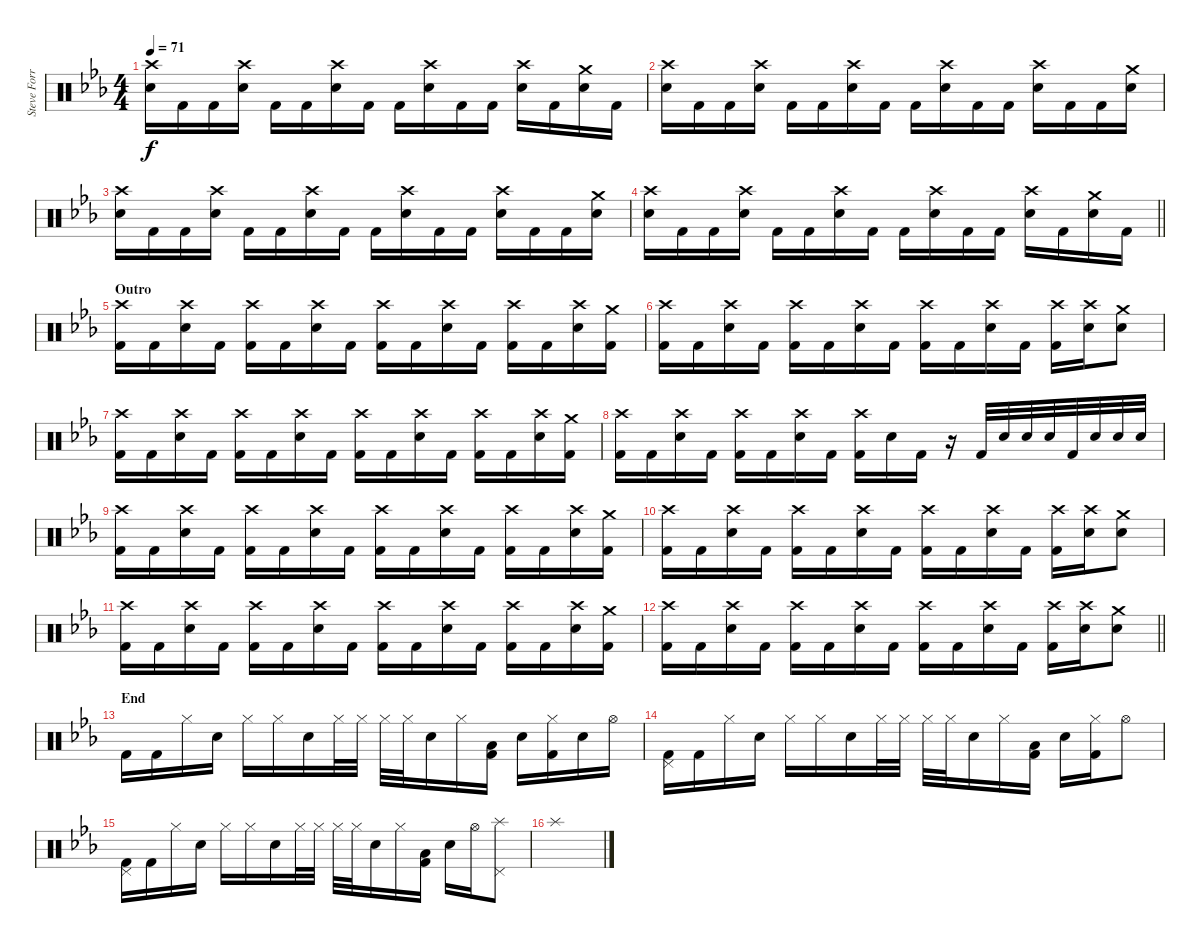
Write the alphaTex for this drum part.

\track ("Steve Forrest [Drums]" "Steve Forr") {instrument percussion}
\staff {score}
\articulation defaults
\ts (4 4)
\tempo 71
\clef neutral
\ks cminor
("Crash high (hit)" "Electric Snare (hit)").16{dy f} "Kick (hit) 2".16 "Kick (hit) 2".16 ("Crash high (hit)" "Electric Snare (hit)").16 "Kick (hit) 2".16 "Kick (hit) 2".16 ("Crash high (hit)" "Electric Snare (hit)").16 "Kick (hit) 2".16 "Kick (hit) 2".16 ("Crash high (hit)" "Electric Snare (hit)").16 "Kick (hit) 2".16 "Kick (hit) 2".16 ("Crash high (hit)" "Electric Snare (hit)").16 "Kick (hit) 2".16 ("Crash medium (hit)" "Electric Snare (hit)").16 "Kick (hit) 2".16 |
("Crash high (hit)" "Electric Snare (hit)").16 "Kick (hit) 2".16 "Kick (hit) 2".16 ("Crash high (hit)" "Electric Snare (hit)").16 "Kick (hit) 2".16 "Kick (hit) 2".16 ("Crash high (hit)" "Electric Snare (hit)").16 "Kick (hit) 2".16 "Kick (hit) 2".16 ("Crash high (hit)" "Electric Snare (hit)").16 "Kick (hit) 2".16 "Kick (hit) 2".16 ("Crash high (hit)" "Electric Snare (hit)").16 "Kick (hit) 2".16 "Kick (hit) 2".16 ("Crash medium (hit)" "Electric Snare (hit)").16 |
("Crash high (hit)" "Electric Snare (hit)").16 "Kick (hit) 2".16 "Kick (hit) 2".16 ("Crash high (hit)" "Electric Snare (hit)").16 "Kick (hit) 2".16 "Kick (hit) 2".16 ("Crash high (hit)" "Electric Snare (hit)").16 "Kick (hit) 2".16 "Kick (hit) 2".16 ("Crash high (hit)" "Electric Snare (hit)").16 "Kick (hit) 2".16 "Kick (hit) 2".16 ("Crash high (hit)" "Electric Snare (hit)").16 "Kick (hit) 2".16 "Kick (hit) 2".16 ("Crash medium (hit)" "Electric Snare (hit)").16 |
\barLineRight lightlight
("Crash high (hit)" "Electric Snare (hit)").16 "Kick (hit) 2".16 "Kick (hit) 2".16 ("Crash high (hit)" "Electric Snare (hit)").16 "Kick (hit) 2".16 "Kick (hit) 2".16 ("Crash high (hit)" "Electric Snare (hit)").16 "Kick (hit) 2".16 "Kick (hit) 2".16 ("Crash high (hit)" "Electric Snare (hit)").16 "Kick (hit) 2".16 "Kick (hit) 2".16 ("Crash high (hit)" "Electric Snare (hit)").16 "Kick (hit) 2".16 ("Crash medium (hit)" "Electric Snare (hit)").16 "Kick (hit) 2".16 |
\section ("" "Outro")
("Crash high (hit)" "Kick (hit) 2").16 "Kick (hit) 2".16 ("Crash high (hit)" "Electric Snare (hit)").16 "Kick (hit) 2".16 ("Crash high (hit)" "Kick (hit) 2").16 "Kick (hit) 2".16 ("Crash high (hit)" "Electric Snare (hit)").16 "Kick (hit) 2".16 ("Crash high (hit)" "Kick (hit) 2").16 "Kick (hit) 2".16 ("Crash high (hit)" "Electric Snare (hit)").16 "Kick (hit) 2".16 ("Crash high (hit)" "Kick (hit) 2").16 "Kick (hit) 2".16 ("Crash high (hit)" "Electric Snare (hit)").16 ("Crash medium (hit)" "Kick (hit) 2").16 |
("Crash high (hit)" "Kick (hit) 2").16 "Kick (hit) 2".16 ("Crash high (hit)" "Electric Snare (hit)").16 "Kick (hit) 2".16 ("Crash high (hit)" "Kick (hit) 2").16 "Kick (hit) 2".16 ("Crash high (hit)" "Electric Snare (hit)").16 "Kick (hit) 2".16 ("Crash high (hit)" "Kick (hit) 2").16 "Kick (hit) 2".16 ("Crash high (hit)" "Electric Snare (hit)").16 "Kick (hit) 2".16 ("Crash high (hit)" "Kick (hit) 2").16 ("Crash high (hit)" "Electric Snare (hit)").16 ("Crash medium (hit)" "Electric Snare (hit)").8 |
("Crash high (hit)" "Kick (hit) 2").16 "Kick (hit) 2".16 ("Crash high (hit)" "Electric Snare (hit)").16 "Kick (hit) 2".16 ("Crash high (hit)" "Kick (hit) 2").16 "Kick (hit) 2".16 ("Crash high (hit)" "Electric Snare (hit)").16 "Kick (hit) 2".16 ("Crash high (hit)" "Kick (hit) 2").16 "Kick (hit) 2".16 ("Crash high (hit)" "Electric Snare (hit)").16 "Kick (hit) 2".16 ("Crash high (hit)" "Kick (hit) 2").16 "Kick (hit) 2".16 ("Crash high (hit)" "Electric Snare (hit)").16 ("Crash medium (hit)" "Kick (hit) 2").16 |
("Crash high (hit)" "Kick (hit) 2").16 "Kick (hit) 2".16 ("Crash high (hit)" "Electric Snare (hit)").16 "Kick (hit) 2".16 ("Crash high (hit)" "Kick (hit) 2").16 "Kick (hit) 2".16 ("Crash high (hit)" "Electric Snare (hit)").16 "Kick (hit) 2".16 ("Crash high (hit)" "Kick (hit) 2").16 "Electric Snare (hit)".16 "Kick (hit) 2".16 r.16 "Kick (hit) 2".32 "Electric Snare (hit)".32 "Electric Snare (hit)".32 "Electric Snare (hit)".32 "Kick (hit) 2".32 "Electric Snare (hit)".32 "Electric Snare (hit)".32 "Electric Snare (hit)".32 |
("Crash high (hit)" "Kick (hit) 2").16 "Kick (hit) 2".16 ("Crash high (hit)" "Electric Snare (hit)").16 "Kick (hit) 2".16 ("Crash high (hit)" "Kick (hit) 2").16 "Kick (hit) 2".16 ("Crash high (hit)" "Electric Snare (hit)").16 "Kick (hit) 2".16 ("Crash high (hit)" "Kick (hit) 2").16 "Kick (hit) 2".16 ("Crash high (hit)" "Electric Snare (hit)").16 "Kick (hit) 2".16 ("Crash high (hit)" "Kick (hit) 2").16 "Kick (hit) 2".16 ("Crash high (hit)" "Electric Snare (hit)").16 ("Crash medium (hit)" "Kick (hit) 2").16 |
("Crash high (hit)" "Kick (hit) 2").16 "Kick (hit) 2".16 ("Crash high (hit)" "Electric Snare (hit)").16 "Kick (hit) 2".16 ("Crash high (hit)" "Kick (hit) 2").16 "Kick (hit) 2".16 ("Crash high (hit)" "Electric Snare (hit)").16 "Kick (hit) 2".16 ("Crash high (hit)" "Kick (hit) 2").16 "Kick (hit) 2".16 ("Crash high (hit)" "Electric Snare (hit)").16 "Kick (hit) 2".16 ("Crash high (hit)" "Kick (hit) 2").16 ("Crash high (hit)" "Electric Snare (hit)").16 ("Crash medium (hit)" "Electric Snare (hit)").8 |
("Crash high (hit)" "Kick (hit) 2").16 "Kick (hit) 2".16 ("Crash high (hit)" "Electric Snare (hit)").16 "Kick (hit) 2".16 ("Crash high (hit)" "Kick (hit) 2").16 "Kick (hit) 2".16 ("Crash high (hit)" "Electric Snare (hit)").16 "Kick (hit) 2".16 ("Crash high (hit)" "Kick (hit) 2").16 "Kick (hit) 2".16 ("Crash high (hit)" "Electric Snare (hit)").16 "Kick (hit) 2".16 ("Crash high (hit)" "Kick (hit) 2").16 "Kick (hit) 2".16 ("Crash high (hit)" "Electric Snare (hit)").16 ("Crash medium (hit)" "Kick (hit) 2").16 |
\barLineRight lightlight
("Crash high (hit)" "Kick (hit) 2").16 "Kick (hit) 2".16 ("Crash high (hit)" "Electric Snare (hit)").16 "Kick (hit) 2".16 ("Crash high (hit)" "Kick (hit) 2").16 "Kick (hit) 2".16 ("Crash high (hit)" "Electric Snare (hit)").16 "Kick (hit) 2".16 ("Crash high (hit)" "Kick (hit) 2").16 "Kick (hit) 2".16 ("Crash high (hit)" "Electric Snare (hit)").16 "Kick (hit) 2".16 ("Crash high (hit)" "Kick (hit) 2").16 ("Crash high (hit)" "Electric Snare (hit)").16 ("Crash medium (hit)" "Electric Snare (hit)").8 |
\section ("" "End")
"Kick (hit) 2".16 "Kick (hit) 2".16 "Hi-Hat (closed)".16 "Electric Snare (hit)".16 "Hi-Hat (closed)".16 "Hi-Hat (closed)".16 "Electric Snare (hit)".16 "Hi-Hat (closed)".32 "Hi-Hat (closed)".32 "Hi-Hat (closed)".32 "Hi-Hat (closed)".32 "Electric Snare (hit)".16 "Hi-Hat (closed)".16 ("Low Tom (hit)" "Kick (hit) 2").16 "Electric Snare (hit)".16 ("Hi-Hat (closed)" "Kick (hit) 2").16 "Electric Snare (hit)".16 "Hi-Hat (open)".16 |
("Pedal Hi-Hat (hit)" "Kick (hit) 2").16 "Kick (hit) 2".16 "Hi-Hat (closed)".16 "Electric Snare (hit)".16 "Hi-Hat (closed)".16 "Hi-Hat (closed)".16 "Electric Snare (hit)".16 "Hi-Hat (closed)".32 "Hi-Hat (closed)".32 "Hi-Hat (closed)".32 "Hi-Hat (closed)".32 "Electric Snare (hit)".16 "Hi-Hat (closed)".16 ("Low Tom (hit)" "Kick (hit) 2").16 "Electric Snare (hit)".16 ("Hi-Hat (closed)" "Kick (hit) 2").16 "Hi-Hat (open)".8 |
("Pedal Hi-Hat (hit)" "Kick (hit) 2").16 "Kick (hit) 2".16 "Hi-Hat (closed)".16 "Electric Snare (hit)".16 "Hi-Hat (closed)".16 "Hi-Hat (closed)".16 "Electric Snare (hit)".16 "Hi-Hat (closed)".32 "Hi-Hat (closed)".32 "Hi-Hat (closed)".32 "Hi-Hat (closed)".32 "Electric Snare (hit)".16 "Hi-Hat (closed)".16 ("Low Tom (hit)" "Kick (hit) 2").16 "Electric Snare (hit)".16 "Hi-Hat (open)".16 ("Pedal Hi-Hat (hit)" "Splash (hit)").8 |
"Splash (hit)".1
